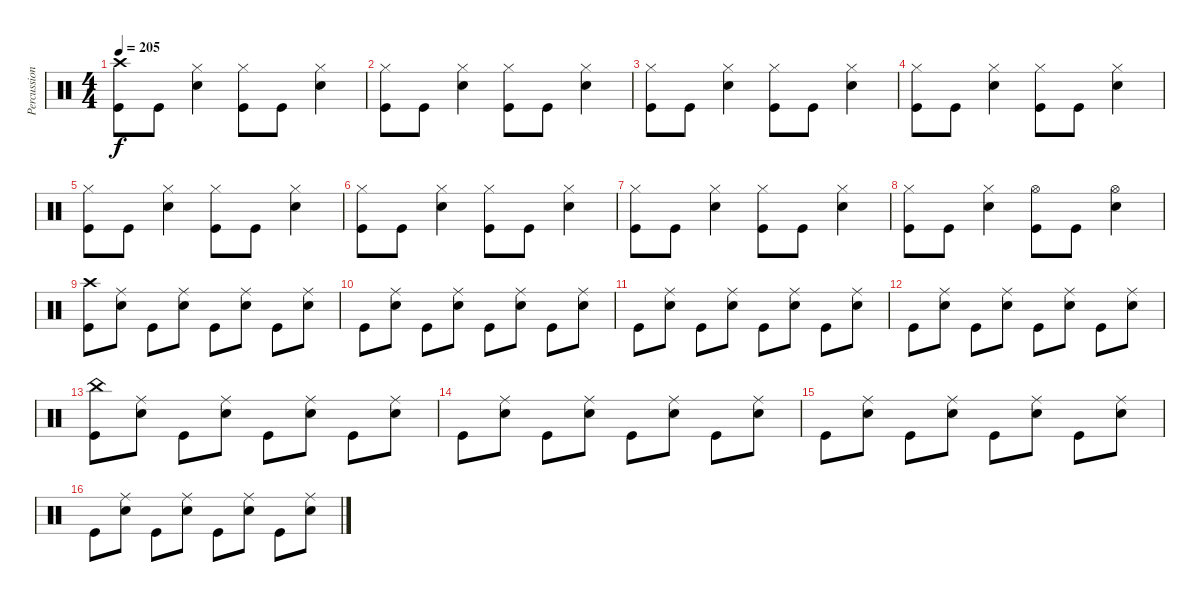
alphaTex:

\track ("Percussion" "Percussion") {instrument percussion}
\staff {score}
\articulation defaults
\ts (4 4)
\tempo 205
\clef neutral
\ks c
("Kick (hit)" "Crash high (hit)").8{dy f} "Kick (hit)".8 ("Snare (hit) 2" "Hi-Hat (closed)").4 ("Kick (hit)" "Hi-Hat (closed)").8 "Kick (hit)".8 ("Snare (hit) 2" "Hi-Hat (closed)").4 |
("Kick (hit)" "Hi-Hat (closed)").8 "Kick (hit)".8 ("Snare (hit) 2" "Hi-Hat (closed)").4 ("Kick (hit)" "Hi-Hat (closed)").8 "Kick (hit)".8 ("Snare (hit) 2" "Hi-Hat (closed)").4 |
("Kick (hit)" "Hi-Hat (closed)").8 "Kick (hit)".8 ("Snare (hit) 2" "Hi-Hat (closed)").4 ("Kick (hit)" "Hi-Hat (closed)").8 "Kick (hit)".8 ("Snare (hit) 2" "Hi-Hat (closed)").4 |
("Kick (hit)" "Hi-Hat (closed)").8 "Kick (hit)".8 ("Snare (hit) 2" "Hi-Hat (closed)").4 ("Kick (hit)" "Hi-Hat (closed)").8 "Kick (hit)".8 ("Snare (hit) 2" "Hi-Hat (closed)").4 |
("Kick (hit)" "Hi-Hat (closed)").8 "Kick (hit)".8 ("Snare (hit) 2" "Hi-Hat (closed)").4 ("Kick (hit)" "Hi-Hat (closed)").8 "Kick (hit)".8 ("Snare (hit) 2" "Hi-Hat (closed)").4 |
("Kick (hit)" "Hi-Hat (closed)").8 "Kick (hit)".8 ("Snare (hit) 2" "Hi-Hat (closed)").4 ("Kick (hit)" "Hi-Hat (closed)").8 "Kick (hit)".8 ("Snare (hit) 2" "Hi-Hat (closed)").4 |
("Kick (hit)" "Hi-Hat (closed)").8 "Kick (hit)".8 ("Snare (hit) 2" "Hi-Hat (closed)").4 ("Kick (hit)" "Hi-Hat (closed)").8 "Kick (hit)".8 ("Snare (hit) 2" "Hi-Hat (closed)").4 |
("Kick (hit)" "Hi-Hat (closed)").8 "Kick (hit)".8 ("Snare (hit) 2" "Hi-Hat (closed)").4 ("Kick (hit)" "Hi-Hat (open)").8 "Kick (hit)".8 ("Snare (hit) 2" "Hi-Hat (open)").4 |
("Kick (hit)" "Crash high (hit)").8 ("Snare (hit) 2" "Ride (middle)").8 "Kick (hit)".8 ("Snare (hit) 2" "Ride (middle)").8 "Kick (hit)".8 ("Snare (hit) 2" "Ride (middle)").8 "Kick (hit)".8 ("Snare (hit) 2" "Ride (middle)").8 |
"Kick (hit)".8 ("Snare (hit) 2" "Ride (middle)").8 "Kick (hit)".8 ("Snare (hit) 2" "Ride (middle)").8 "Kick (hit)".8 ("Snare (hit) 2" "Ride (middle)").8 "Kick (hit)".8 ("Snare (hit) 2" "Ride (middle)").8 |
"Kick (hit)".8 ("Snare (hit) 2" "Ride (middle)").8 "Kick (hit)".8 ("Snare (hit) 2" "Ride (middle)").8 "Kick (hit)".8 ("Snare (hit) 2" "Ride (middle)").8 "Kick (hit)".8 ("Snare (hit) 2" "Ride (middle)").8 |
"Kick (hit)".8 ("Snare (hit) 2" "Ride (middle)").8 "Kick (hit)".8 ("Snare (hit) 2" "Ride (middle)").8 "Kick (hit)".8 ("Snare (hit) 2" "Ride (middle)").8 "Kick (hit)".8 ("Snare (hit) 2" "Ride (middle)").8 |
("Kick (hit)" "China (hit)").8 ("Snare (hit) 2" "Ride (middle)").8 "Kick (hit)".8 ("Snare (hit) 2" "Ride (middle)").8 "Kick (hit)".8 ("Snare (hit) 2" "Ride (middle)").8 "Kick (hit)".8 ("Snare (hit) 2" "Ride (middle)").8 |
"Kick (hit)".8 ("Snare (hit) 2" "Ride (middle)").8 "Kick (hit)".8 ("Snare (hit) 2" "Ride (middle)").8 "Kick (hit)".8 ("Snare (hit) 2" "Ride (middle)").8 "Kick (hit)".8 ("Snare (hit) 2" "Ride (middle)").8 |
"Kick (hit)".8 ("Snare (hit) 2" "Ride (middle)").8 "Kick (hit)".8 ("Snare (hit) 2" "Ride (middle)").8 "Kick (hit)".8 ("Snare (hit) 2" "Ride (middle)").8 "Kick (hit)".8 ("Snare (hit) 2" "Ride (middle)").8 |
"Kick (hit)".8 ("Snare (hit) 2" "Ride (middle)").8 "Kick (hit)".8 ("Snare (hit) 2" "Ride (middle)").8 "Kick (hit)".8 ("Snare (hit) 2" "Ride (middle)").8 "Kick (hit)".8 ("Snare (hit) 2" "Ride (middle)").8
